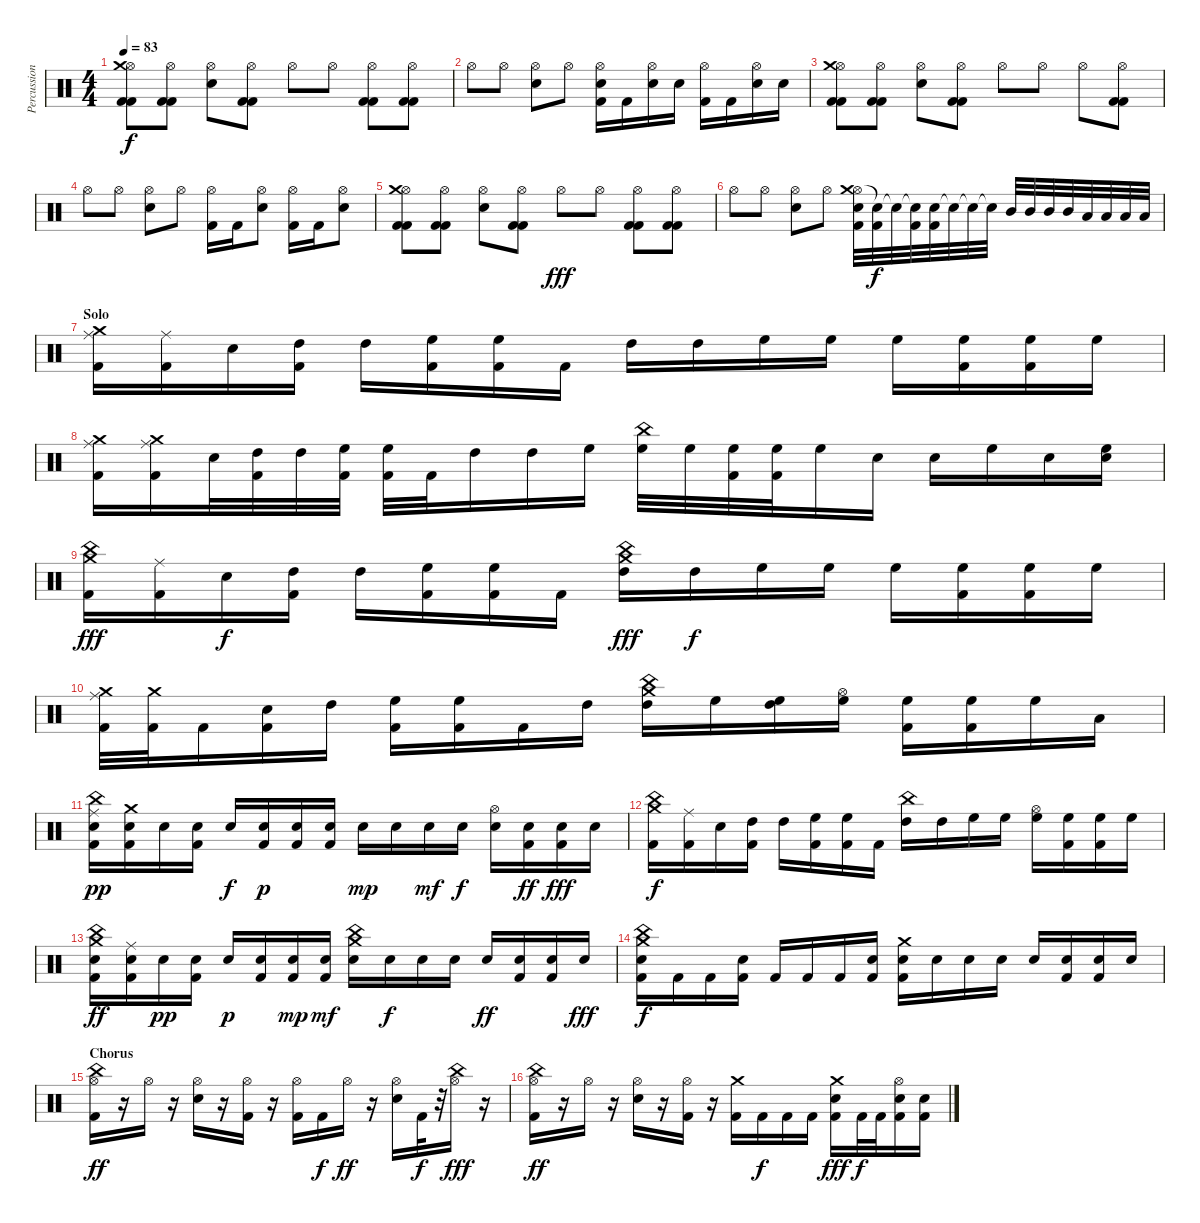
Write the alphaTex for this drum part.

\track ("Percussion" "Percussion") {instrument percussion}
\staff {score}
\articulation defaults
\ts (4 4)
\tempo 83
\clef neutral
\ks c
("Hi-Hat (open)" "Crash medium (hit)" "Kick (hit) 2" "Kick (hit) 2").8{dy f} ("Hi-Hat (open)" "Kick (hit) 2" "Kick (hit) 2").8 ("Hi-Hat (open)" "Snare (hit) 2").8 ("Hi-Hat (open)" "Kick (hit) 2" "Kick (hit) 2").8 "Hi-Hat (open)".8 "Hi-Hat (open)".8 ("Hi-Hat (open)" "Kick (hit) 2" "Kick (hit) 2").8 ("Hi-Hat (open)" "Kick (hit) 2" "Kick (hit) 2").8 |
"Hi-Hat (open)".8 "Hi-Hat (open)".8 ("Hi-Hat (open)" "Snare (hit) 2").8 "Hi-Hat (open)".8 ("Hi-Hat (open)" "Snare (hit) 2" "Kick (hit) 2").16 "Kick (hit) 2".16 ("Hi-Hat (open)" "Snare (hit) 2").16 "Snare (hit) 2".16 ("Hi-Hat (open)" "Kick (hit) 2").16 "Kick (hit) 2".16 ("Hi-Hat (open)" "Snare (hit) 2").16 "Snare (hit) 2".16 |
("Hi-Hat (open)" "Crash medium (hit)" "Kick (hit) 2" "Kick (hit) 2").8 ("Hi-Hat (open)" "Kick (hit) 2" "Kick (hit) 2").8 ("Hi-Hat (open)" "Snare (hit) 2").8 ("Hi-Hat (open)" "Kick (hit) 2" "Kick (hit) 2").8 "Hi-Hat (open)".8 "Hi-Hat (open)".8 "Hi-Hat (open)".8 ("Hi-Hat (open)" "Kick (hit) 2" "Kick (hit) 2").8 |
"Hi-Hat (open)".8 "Hi-Hat (open)".8 ("Hi-Hat (open)" "Snare (hit) 2").8 "Hi-Hat (open)".8 ("Hi-Hat (open)" "Kick (hit) 2").16 "Kick (hit) 2".16 ("Hi-Hat (open)" "Snare (hit) 2").8 ("Hi-Hat (open)" "Kick (hit) 2").16 "Kick (hit) 2".16 ("Hi-Hat (open)" "Snare (hit) 2").8 |
("Hi-Hat (open)" "Crash medium (hit)" "Kick (hit) 2" "Kick (hit) 2").8 ("Hi-Hat (open)" "Kick (hit) 2" "Kick (hit) 2").8 ("Hi-Hat (open)" "Snare (hit) 2").8 ("Hi-Hat (open)" "Kick (hit) 2" "Kick (hit) 2").8 "Hi-Hat (open)".8{dy fff} "Hi-Hat (open)".8 ("Hi-Hat (open)" "Kick (hit) 2" "Kick (hit) 2").8 ("Hi-Hat (open)" "Kick (hit) 2" "Kick (hit) 2").8 |
"Hi-Hat (open)".8 "Hi-Hat (open)".8 ("Hi-Hat (open)" "Snare (hit) 2").8 "Hi-Hat (open)".8 ("Hi-Hat (open)" "Crash medium (hit)" "Snare (hit) 2" "Kick (hit) 2").32 ("Snare (hit) 2"{t} "Kick (hit) 2").32{dy f} "Snare (hit) 2"{t}.32 ("Snare (hit) 2"{t} "Kick (hit) 2").32 ("Snare (hit) 2" "Kick (hit) 2").32 "Snare (hit) 2"{t}.32 "Snare (hit) 2"{t}.32 "Snare (hit) 2"{t}.32 "Mid Tom (hit)".32 "Mid Tom (hit)".32 "Mid Tom (hit)".32 "Mid Tom (hit)".32 "Low Tom (hit)".32 "Low Tom (hit)".32 "Low Tom (hit)".32 "Low Tom (hit)".32 |
\section ("" "Solo")
("Ride (middle)" "Crash medium (hit)" "Kick (hit) 2").16 ("Ride (middle)" "Kick (hit) 2").16 "Snare (hit) 2".16 ("High Tom (hit)" "Kick (hit) 2").16 "High Tom (hit)".16 ("High Floor Tom (hit)" "Kick (hit) 2").16 ("High Floor Tom (hit)" "Kick (hit) 2").16 "Kick (hit) 2".16 "High Tom (hit)".16 "High Tom (hit)".16 "High Floor Tom (hit)".16 "High Floor Tom (hit)".16 "High Floor Tom (hit)".16 ("High Floor Tom (hit)" "Kick (hit) 2").16 ("High Floor Tom (hit)" "Kick (hit) 2").16 "High Floor Tom (hit)".16 |
("Ride (middle)" "Crash medium (hit)" "Kick (hit) 2").16 ("Ride (middle)" "Crash medium (hit)" "Kick (hit) 2").16 "Snare (hit) 2".32 ("High Tom (hit)" "Kick (hit) 2").32 "High Tom (hit)".32 ("High Floor Tom (hit)" "Kick (hit) 2").32 ("High Floor Tom (hit)" "Kick (hit) 2").32 "Kick (hit) 2".32 "High Tom (hit)".16 "High Tom (hit)".16 "High Floor Tom (hit)".16 ("China (hit)" "High Floor Tom (hit)").32 "High Floor Tom (hit)".32 ("High Floor Tom (hit)" "Kick (hit) 2").32 ("High Floor Tom (hit)" "Kick (hit) 2").32 "High Floor Tom (hit)".16 "Snare (hit) 2".16 "Snare (hit) 2".16 "High Floor Tom (hit)".16 "Snare (hit) 2".16 ("Snare (hit) 2" "High Floor Tom (hit)").16 |
("Crash medium (hit)" "China (hit)" "Kick (hit) 2").16{dy fff} ("Ride (middle)" "Kick (hit) 2").16 "Snare (hit) 2".16{dy f} ("High Tom (hit)" "Kick (hit) 2").16 "High Tom (hit)".16 ("High Floor Tom (hit)" "Kick (hit) 2").16 ("High Floor Tom (hit)" "Kick (hit) 2").16 "Kick (hit) 2".16 ("Crash medium (hit)" "China (hit)" "High Tom (hit)").16{dy fff} "High Tom (hit)".16{dy f} "High Floor Tom (hit)".16 "High Floor Tom (hit)".16 "High Floor Tom (hit)".16 ("High Floor Tom (hit)" "Kick (hit) 2").16 ("High Floor Tom (hit)" "Kick (hit) 2").16 "High Floor Tom (hit)".16 |
("Ride (middle)" "Crash medium (hit)" "Kick (hit) 2").32 ("Crash medium (hit)" "Kick (hit) 2").32 "Kick (hit) 2".16 ("Snare (hit) 2" "Kick (hit) 2").16 "High Tom (hit)".16 ("High Floor Tom (hit)" "Kick (hit) 2").16 ("High Floor Tom (hit)" "Kick (hit) 2").16 "Kick (hit) 2".16 "High Tom (hit)".16 ("Crash medium (hit)" "China (hit)" "High Tom (hit)").16 "High Floor Tom (hit)".16 ("High Tom (hit)" "High Floor Tom (hit)").16 ("Hi-Hat (open)" "High Floor Tom (hit)").16 ("High Floor Tom (hit)" "Kick (hit) 2").16 ("High Floor Tom (hit)" "Kick (hit) 2").16 "High Floor Tom (hit)".16 "Low Tom (hit)".16 |
("Ride (middle)" "China (hit)" "Snare (hit) 2" "Kick (hit) 2").16{dy pp} ("Crash medium (hit)" "Snare (hit) 2" "Kick (hit) 2").16 "Snare (hit) 2".16 ("Snare (hit) 2" "Kick (hit) 2").16 "Snare (hit) 2".16{dy f} ("Snare (hit) 2" "Kick (hit) 2").16{dy p} ("Snare (hit) 2" "Kick (hit) 2").16 ("Snare (hit) 2" "Kick (hit) 2").16 "Snare (hit) 2".16{dy mp} "Snare (hit) 2".16 "Snare (hit) 2".16{dy mf} "Snare (hit) 2".16{dy f} ("Hi-Hat (open)" "Snare (hit) 2").16 ("Snare (hit) 2" "Kick (hit) 2").16{dy ff} ("Snare (hit) 2" "Kick (hit) 2").16{dy fff} "Snare (hit) 2".16 |
("Crash medium (hit)" "China (hit)" "Kick (hit) 2").16{dy f} ("Ride (middle)" "Kick (hit) 2").16 "Snare (hit) 2".16 ("High Tom (hit)" "Kick (hit) 2").16 "High Tom (hit)".16 ("High Floor Tom (hit)" "Kick (hit) 2").16 ("High Floor Tom (hit)" "Kick (hit) 2").16 "Kick (hit) 2".16 ("China (hit)" "High Tom (hit)").16 "High Tom (hit)".16 "High Floor Tom (hit)".16 "High Floor Tom (hit)".16 ("Hi-Hat (open)" "High Floor Tom (hit)").16 ("High Floor Tom (hit)" "Kick (hit) 2").16 ("High Floor Tom (hit)" "Kick (hit) 2").16 "High Floor Tom (hit)".16 |
("Crash medium (hit)" "China (hit)" "Snare (hit) 2" "Kick (hit) 2").16{dy ff} ("Ride (middle)" "Snare (hit) 2" "Kick (hit) 2").16 "Snare (hit) 2".16{dy pp} ("Snare (hit) 2" "Kick (hit) 2").16 "Snare (hit) 2".16{dy p} ("Snare (hit) 2" "Kick (hit) 2").16 ("Snare (hit) 2" "Kick (hit) 2").16{dy mp} ("Snare (hit) 2" "Kick (hit) 2").16{dy mf} ("Crash medium (hit)" "China (hit)" "Snare (hit) 2").16 "Snare (hit) 2".16{dy f} "Snare (hit) 2".16 "Snare (hit) 2".16 "Snare (hit) 2".16{dy ff} ("Snare (hit) 2" "Kick (hit) 2").16 ("Snare (hit) 2" "Kick (hit) 2").16 "Snare (hit) 2".16{dy fff} |
("Crash medium (hit)" "China (hit)" "Snare (hit) 2" "Kick (hit) 2").16{dy f} "Kick (hit) 2".16 "Kick (hit) 2".16 ("Snare (hit) 2" "Kick (hit) 2").16 "Kick (hit) 2".16 "Kick (hit) 2".16 "Kick (hit) 2".16 ("Snare (hit) 2" "Kick (hit) 2").16 ("Crash medium (hit)" "Snare (hit) 2" "Kick (hit) 2").16 "Snare (hit) 2".16 "Snare (hit) 2".16 "Snare (hit) 2".16 "Snare (hit) 2".16 ("Snare (hit) 2" "Kick (hit) 2").16 ("Snare (hit) 2" "Kick (hit) 2").16 "Snare (hit) 2".16 |
\section ("" "Chorus")
("Hi-Hat (open)" "China (hit)" "Kick (hit) 2").16{dy ff} r.16 "Hi-Hat (open)".16 r.16 ("Hi-Hat (open)" "Snare (hit) 2").16 r.16 ("Hi-Hat (open)" "Kick (hit) 2").16 r.16 ("Hi-Hat (open)" "Kick (hit) 2").16 "Kick (hit) 2".16{dy f} "Hi-Hat (open)".16{dy ff} r.16 ("Hi-Hat (open)" "Snare (hit) 2").16 "Kick (hit) 2".32{dy f} r.32 ("China (hit)" "Hi-Hat (open)").16{dy fff} r.16 |
("Hi-Hat (open)" "China (hit)" "Kick (hit) 2").16{dy ff} r.16 "Hi-Hat (open)".16 r.16 ("Hi-Hat (open)" "Snare (hit) 2").16 r.16 ("Hi-Hat (open)" "Kick (hit) 2").16 r.16 ("Crash medium (hit)" "Kick (hit) 2").16 "Kick (hit) 2".16{dy f} "Kick (hit) 2".16 "Kick (hit) 2".16 ("Crash medium (hit)" "Snare (hit) 2" "Kick (hit) 2").16{dy fff} "Kick (hit) 2".32{dy f} "Kick (hit) 2".32 ("Hi-Hat (open)" "Snare (hit) 2" "Kick (hit) 2").16 ("Snare (hit) 2" "Kick (hit) 2").16
